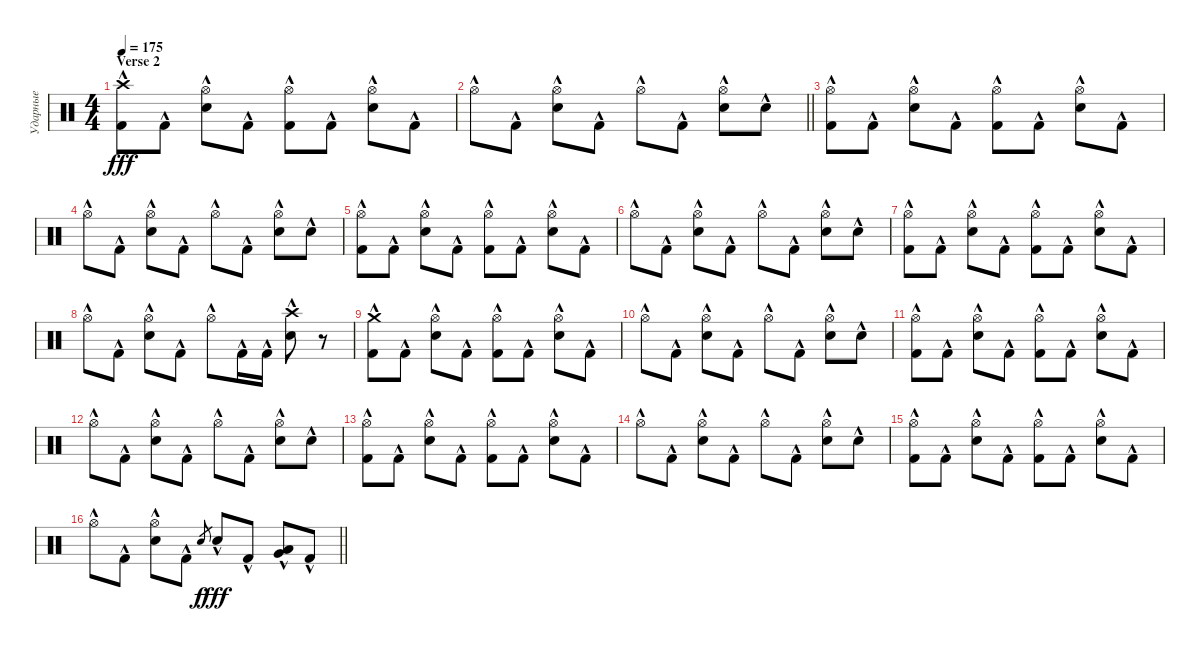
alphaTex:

\track ("Ударные" "Ударные") {instrument percussion}
\staff {score}
\articulation defaults
\ts (4 4)
\section ("" "Verse 2")
\tempo 175
\clef neutral
\ks c
("Crash high (hit)"{hac} "Kick (hit) 2"{hac}).8{dy fff} "Kick (hit) 2"{hac}.8 ("Hi-Hat (open)"{hac} "Snare (hit) 2"{hac}).8 "Kick (hit) 2"{hac}.8 ("Hi-Hat (open)"{hac} "Kick (hit) 2"{hac}).8 "Kick (hit) 2"{hac}.8 ("Hi-Hat (open)"{hac} "Snare (hit) 2"{hac}).8 "Kick (hit) 2"{hac}.8 |
\barLineRight lightlight "Hi-Hat (open)"{hac}.8 "Kick (hit) 2"{hac}.8
("Hi-Hat (open)"{hac} "Snare (hit) 2"{hac}).8 "Kick (hit) 2"{hac}.8 "Hi-Hat (open)"{hac}.8 "Kick (hit) 2"{hac}.8 ("Hi-Hat (open)"{hac} "Snare (hit) 2"{hac}).8 "Snare (hit) 2"{hac}.8 |
("Hi-Hat (open)"{hac} "Kick (hit) 2"{hac}).8 "Kick (hit) 2"{hac}.8 ("Hi-Hat (open)"{hac} "Snare (hit) 2"{hac}).8 "Kick (hit) 2"{hac}.8 ("Hi-Hat (open)"{hac} "Kick (hit) 2"{hac}).8 "Kick (hit) 2"{hac}.8 ("Hi-Hat (open)"{hac} "Snare (hit) 2"{hac}).8 "Kick (hit) 2"{hac}.8 |
"Hi-Hat (open)"{hac}.8 "Kick (hit) 2"{hac}.8 ("Hi-Hat (open)"{hac} "Snare (hit) 2"{hac}).8 "Kick (hit) 2"{hac}.8 "Hi-Hat (open)"{hac}.8 "Kick (hit) 2"{hac}.8 ("Hi-Hat (open)"{hac} "Snare (hit) 2"{hac}).8 "Snare (hit) 2"{hac}.8 |
("Hi-Hat (open)"{hac} "Kick (hit) 2"{hac}).8 "Kick (hit) 2"{hac}.8 ("Hi-Hat (open)"{hac} "Snare (hit) 2"{hac}).8 "Kick (hit) 2"{hac}.8 ("Hi-Hat (open)"{hac} "Kick (hit) 2"{hac}).8 "Kick (hit) 2"{hac}.8 ("Hi-Hat (open)"{hac} "Snare (hit) 2"{hac}).8 "Kick (hit) 2"{hac}.8 |
"Hi-Hat (open)"{hac}.8 "Kick (hit) 2"{hac}.8 ("Hi-Hat (open)"{hac} "Snare (hit) 2"{hac}).8 "Kick (hit) 2"{hac}.8 "Hi-Hat (open)"{hac}.8 "Kick (hit) 2"{hac}.8 ("Hi-Hat (open)"{hac} "Snare (hit) 2"{hac}).8 "Snare (hit) 2"{hac}.8 |
("Hi-Hat (open)"{hac} "Kick (hit) 2"{hac}).8 "Kick (hit) 2"{hac}.8 ("Hi-Hat (open)"{hac} "Snare (hit) 2"{hac}).8 "Kick (hit) 2"{hac}.8 ("Hi-Hat (open)"{hac} "Kick (hit) 2"{hac}).8 "Kick (hit) 2"{hac}.8 ("Hi-Hat (open)"{hac} "Snare (hit) 2"{hac}).8 "Kick (hit) 2"{hac}.8 |
"Hi-Hat (open)"{hac}.8 "Kick (hit) 2"{hac}.8 ("Hi-Hat (open)"{hac} "Snare (hit) 2"{hac}).8 "Kick (hit) 2"{hac}.8 "Hi-Hat (open)"{hac}.8 "Kick (hit) 2"{hac}.16 "Kick (hit) 2"{hac}.16 ("Crash high (hit)"{hac} "Snare (hit) 2"{hac}).8 r.8 |
("Crash medium (hit)"{hac} "Kick (hit) 2"{hac}).8 "Kick (hit) 2"{hac}.8 ("Hi-Hat (open)"{hac} "Snare (hit) 2"{hac}).8 "Kick (hit) 2"{hac}.8 ("Hi-Hat (open)"{hac} "Kick (hit) 2"{hac}).8 "Kick (hit) 2"{hac}.8 ("Hi-Hat (open)"{hac} "Snare (hit) 2"{hac}).8 "Kick (hit) 2"{hac}.8 |
"Hi-Hat (open)"{hac}.8 "Kick (hit) 2"{hac}.8 ("Hi-Hat (open)"{hac} "Snare (hit) 2"{hac}).8 "Kick (hit) 2"{hac}.8 "Hi-Hat (open)"{hac}.8 "Kick (hit) 2"{hac}.8 ("Hi-Hat (open)"{hac} "Snare (hit) 2"{hac}).8 "Snare (hit) 2"{hac}.8 |
("Hi-Hat (open)"{hac} "Kick (hit) 2"{hac}).8 "Kick (hit) 2"{hac}.8 ("Hi-Hat (open)"{hac} "Snare (hit) 2"{hac}).8 "Kick (hit) 2"{hac}.8 ("Hi-Hat (open)"{hac} "Kick (hit) 2"{hac}).8 "Kick (hit) 2"{hac}.8 ("Hi-Hat (open)"{hac} "Snare (hit) 2"{hac}).8 "Kick (hit) 2"{hac}.8 |
"Hi-Hat (open)"{hac}.8 "Kick (hit) 2"{hac}.8 ("Hi-Hat (open)"{hac} "Snare (hit) 2"{hac}).8 "Kick (hit) 2"{hac}.8 "Hi-Hat (open)"{hac}.8 "Kick (hit) 2"{hac}.8 ("Hi-Hat (open)"{hac} "Snare (hit) 2"{hac}).8 "Snare (hit) 2"{hac}.8 |
("Hi-Hat (open)"{hac} "Kick (hit) 2"{hac}).8 "Kick (hit) 2"{hac}.8 ("Hi-Hat (open)"{hac} "Snare (hit) 2"{hac}).8 "Kick (hit) 2"{hac}.8 ("Hi-Hat (open)"{hac} "Kick (hit) 2"{hac}).8 "Kick (hit) 2"{hac}.8 ("Hi-Hat (open)"{hac} "Snare (hit) 2"{hac}).8 "Kick (hit) 2"{hac}.8 |
"Hi-Hat (open)"{hac}.8 "Kick (hit) 2"{hac}.8 ("Hi-Hat (open)"{hac} "Snare (hit) 2"{hac}).8 "Kick (hit) 2"{hac}.8 "Hi-Hat (open)"{hac}.8 "Kick (hit) 2"{hac}.8 ("Hi-Hat (open)"{hac} "Snare (hit) 2"{hac}).8 "Snare (hit) 2"{hac}.8 |
("Hi-Hat (open)"{hac} "Kick (hit) 2"{hac}).8 "Kick (hit) 2"{hac}.8 ("Hi-Hat (open)"{hac} "Snare (hit) 2"{hac}).8 "Kick (hit) 2"{hac}.8 ("Hi-Hat (open)"{hac} "Kick (hit) 2"{hac}).8 "Kick (hit) 2"{hac}.8 ("Hi-Hat (open)"{hac} "Snare (hit) 2"{hac}).8 "Kick (hit) 2"{hac}.8 |
\barLineRight lightlight "Hi-Hat (open)"{hac}.8 "Kick (hit) 2"{hac}.8
("Hi-Hat (open)"{hac} "Snare (hit) 2"{hac}).8 "Kick (hit) 2"{hac}.8 "Snare (hit) 2".8{gr dy f} "Snare (hit) 2"{hac}.8{dy fff} "Kick (hit) 2"{hac}.8 ("Very Low Tom (hit)"{hac} "Low Floor Tom (hit)"{hac}).8 "Kick (hit) 2"{hac}.8
